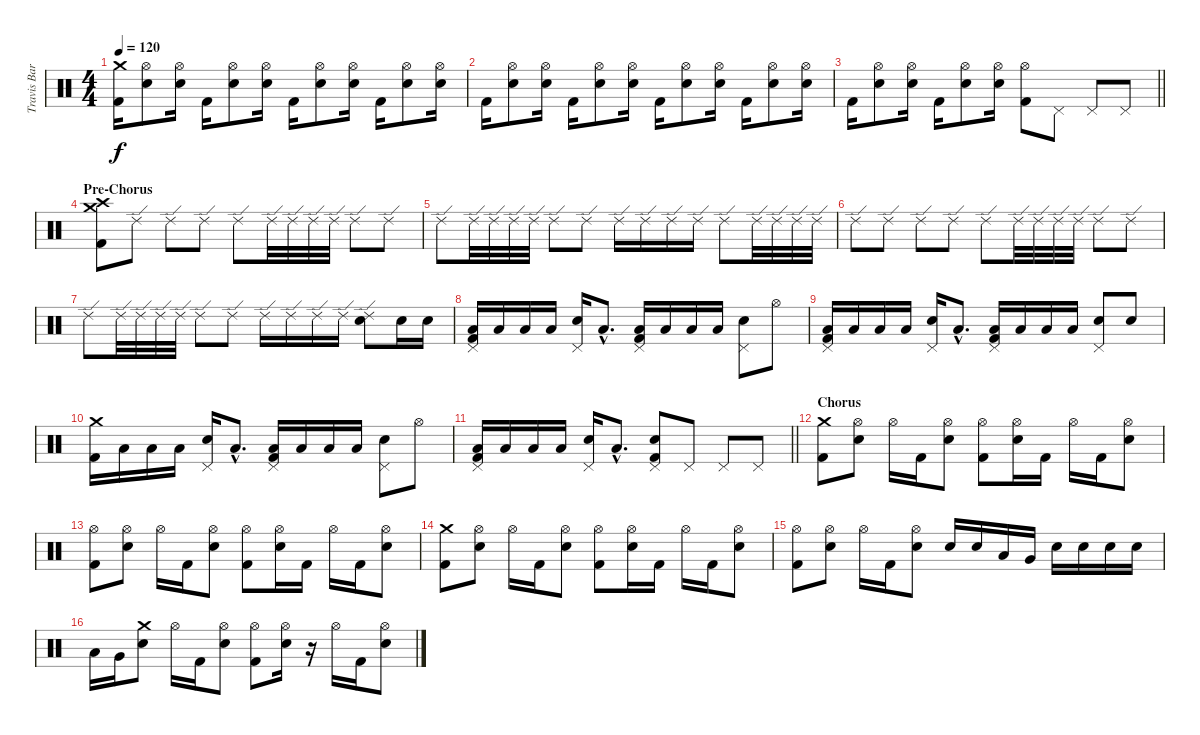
\track ("Travis Barker" "Travis Bar") {instrument percussion}
\staff {score}
\articulation defaults
\ts (4 4)
\tempo 120
\clef neutral
\ks c
("Crash medium (hit)" "Kick (hit) 2").16{dy f} ("Hi-Hat (open)" "Electric Snare (hit)").8 ("Hi-Hat (open)" "Electric Snare (hit)").16 "Kick (hit) 2".16 ("Hi-Hat (open)" "Electric Snare (hit)").8 ("Hi-Hat (open)" "Electric Snare (hit)").16 "Kick (hit) 2".16 ("Hi-Hat (open)" "Electric Snare (hit)").8 ("Hi-Hat (open)" "Electric Snare (hit)").16 "Kick (hit) 2".16 ("Hi-Hat (open)" "Electric Snare (hit)").8 ("Hi-Hat (open)" "Electric Snare (hit)").16 |
"Kick (hit) 2".16 ("Hi-Hat (open)" "Electric Snare (hit)").8 ("Hi-Hat (open)" "Electric Snare (hit)").16 "Kick (hit) 2".16 ("Hi-Hat (open)" "Electric Snare (hit)").8 ("Hi-Hat (open)" "Electric Snare (hit)").16 "Kick (hit) 2".16 ("Hi-Hat (open)" "Electric Snare (hit)").8 ("Hi-Hat (open)" "Electric Snare (hit)").16 "Kick (hit) 2".16 ("Hi-Hat (open)" "Electric Snare (hit)").8 ("Hi-Hat (open)" "Electric Snare (hit)").16 |
\barLineRight lightlight "Kick (hit) 2".16
("Hi-Hat (open)" "Electric Snare (hit)").8 ("Hi-Hat (open)" "Electric Snare (hit)").16 "Kick (hit) 2".16 ("Hi-Hat (open)" "Electric Snare (hit)").8 ("Hi-Hat (open)" "Electric Snare (hit)").16 ("Hi-Hat (open)" "Kick (hit) 2").8 "Pedal Hi-Hat (hit)".8 "Pedal Hi-Hat (hit)".8 "Pedal Hi-Hat (hit)".8 |
\section ("" "Pre-Chorus")
("Crash medium (hit)" "Crash high (hit)" "Kick (hit) 2").8 "Ride (edge) 2".8 "Ride (edge) 2".8 "Ride (edge) 2".8 "Ride (edge) 2".8 "Ride (edge) 2".32 "Ride (edge) 2".32 "Ride (edge) 2".32 "Ride (edge) 2".32 "Ride (edge) 2".8 "Ride (edge) 2".8 |
"Ride (edge) 2".8 "Ride (edge) 2".32 "Ride (edge) 2".32 "Ride (edge) 2".32 "Ride (edge) 2".32 "Ride (edge) 2".8 "Ride (edge) 2".8 "Ride (edge) 2".16 "Ride (edge) 2".16 "Ride (edge) 2".16 "Ride (edge) 2".16 "Ride (edge) 2".8 "Ride (edge) 2".32 "Ride (edge) 2".32 "Ride (edge) 2".32 "Ride (edge) 2".32 |
"Ride (edge) 2".8 "Ride (edge) 2".8 "Ride (edge) 2".8 "Ride (edge) 2".8 "Ride (edge) 2".8 "Ride (edge) 2".32 "Ride (edge) 2".32 "Ride (edge) 2".32 "Ride (edge) 2".32 "Ride (edge) 2".8 "Ride (edge) 2".8 |
"Ride (edge) 2".8 "Ride (edge) 2".32 "Ride (edge) 2".32 "Ride (edge) 2".32 "Ride (edge) 2".32 "Ride (edge) 2".8 "Ride (edge) 2".8 "Ride (edge) 2".16 "Ride (edge) 2".16 "Ride (edge) 2".16 "Ride (edge) 2".16 ("Ride (edge) 2" "Electric Snare (hit)").8 "Electric Snare (hit)".16 "Electric Snare (hit)".16 |
("Pedal Hi-Hat (hit)" "Low Floor Tom (hit)" "Kick (hit) 2").16 "Low Floor Tom (hit)".16 "Low Floor Tom (hit)".16 "Low Floor Tom (hit)".16 ("Pedal Hi-Hat (hit)" "Electric Snare (hit)").16 "Low Floor Tom (hit)"{hac}.8{d} ("Pedal Hi-Hat (hit)" "Low Floor Tom (hit)" "Kick (hit) 2").16 "Low Floor Tom (hit)".16 "Low Floor Tom (hit)".16 "Low Floor Tom (hit)".16 ("Pedal Hi-Hat (hit)" "Electric Snare (hit)").8 "Hi-Hat (open)".8 |
("Pedal Hi-Hat (hit)" "Low Floor Tom (hit)" "Kick (hit) 2").16 "Low Floor Tom (hit)".16 "Low Floor Tom (hit)".16 "Low Floor Tom (hit)".16 ("Pedal Hi-Hat (hit)" "Electric Snare (hit)").16 "Low Floor Tom (hit)"{hac}.8{d} ("Pedal Hi-Hat (hit)" "Low Floor Tom (hit)" "Kick (hit) 2").16 "Low Floor Tom (hit)".16 "Low Floor Tom (hit)".16 "Low Floor Tom (hit)".16 ("Pedal Hi-Hat (hit)" "Electric Snare (hit)").8 "Electric Snare (hit)".8 |
("Crash medium (hit)" "Kick (hit) 2").16 "Low Floor Tom (hit)".16 "Low Floor Tom (hit)".16 "Low Floor Tom (hit)".16 ("Pedal Hi-Hat (hit)" "Electric Snare (hit)").16 "Low Floor Tom (hit)"{hac}.8{d} ("Pedal Hi-Hat (hit)" "Low Floor Tom (hit)" "Kick (hit) 2").16 "Low Floor Tom (hit)".16 "Low Floor Tom (hit)".16 "Low Floor Tom (hit)".16 ("Pedal Hi-Hat (hit)" "Electric Snare (hit)").8 "Hi-Hat (open)".8 |
\barLineRight lightlight
("Pedal Hi-Hat (hit)" "Low Floor Tom (hit)" "Kick (hit) 2").16 "Low Floor Tom (hit)".16 "Low Floor Tom (hit)".16 "Low Floor Tom (hit)".16 ("Pedal Hi-Hat (hit)" "Electric Snare (hit)").16 "Low Floor Tom (hit)"{hac}.8{d} ("Pedal Hi-Hat (hit)" "Electric Snare (hit)" "Kick (hit) 2").8 "Pedal Hi-Hat (hit)".8 "Pedal Hi-Hat (hit)".8 "Pedal Hi-Hat (hit)".8 |
\section ("" "Chorus")
("Crash medium (hit)" "Kick (hit) 2").8 ("Hi-Hat (open)" "Electric Snare (hit)").8 "Hi-Hat (open)".16 "Kick (hit) 2".16 ("Hi-Hat (open)" "Electric Snare (hit)").8 ("Hi-Hat (open)" "Kick (hit) 2").8 ("Hi-Hat (open)" "Electric Snare (hit)").16 "Kick (hit) 2".16 "Hi-Hat (open)".16 "Kick (hit) 2".16 ("Hi-Hat (open)" "Electric Snare (hit)").8 |
("Hi-Hat (open)" "Kick (hit) 2").8 ("Hi-Hat (open)" "Electric Snare (hit)").8 "Hi-Hat (open)".16 "Kick (hit) 2".16 ("Hi-Hat (open)" "Electric Snare (hit)").8 ("Hi-Hat (open)" "Kick (hit) 2").8 ("Hi-Hat (open)" "Electric Snare (hit)").16 "Kick (hit) 2".16 "Hi-Hat (open)".16 "Kick (hit) 2".16 ("Hi-Hat (open)" "Electric Snare (hit)").8 |
("Crash medium (hit)" "Kick (hit) 2").8 ("Hi-Hat (open)" "Electric Snare (hit)").8 "Hi-Hat (open)".16 "Kick (hit) 2".16 ("Hi-Hat (open)" "Electric Snare (hit)").8 ("Hi-Hat (open)" "Kick (hit) 2").8 ("Hi-Hat (open)" "Electric Snare (hit)").16 "Kick (hit) 2".16 "Hi-Hat (open)".16 "Kick (hit) 2".16 ("Hi-Hat (open)" "Electric Snare (hit)").8 |
("Hi-Hat (open)" "Kick (hit) 2").8 ("Hi-Hat (open)" "Electric Snare (hit)").8 "Hi-Hat (open)".16 "Kick (hit) 2".16 ("Hi-Hat (open)" "Electric Snare (hit)").8 "Electric Snare (hit)".16 "Electric Snare (hit)".16 "Low Tom (hit)".16 "Very Low Tom (hit)".16 "Electric Snare (hit)".16 "Electric Snare (hit)".16 "Electric Snare (hit)".16 "Electric Snare (hit)".16 |
"Low Tom (hit)".16 "Very Low Tom (hit)".16 ("Crash medium (hit)" "Electric Snare (hit)").8 "Hi-Hat (open)".16 "Kick (hit) 2".16 ("Hi-Hat (open)" "Electric Snare (hit)").8 ("Hi-Hat (open)" "Kick (hit) 2").8 ("Hi-Hat (open)" "Electric Snare (hit)").16 r.16 "Hi-Hat (open)".16 "Kick (hit) 2".16 ("Hi-Hat (open)" "Electric Snare (hit)").8
